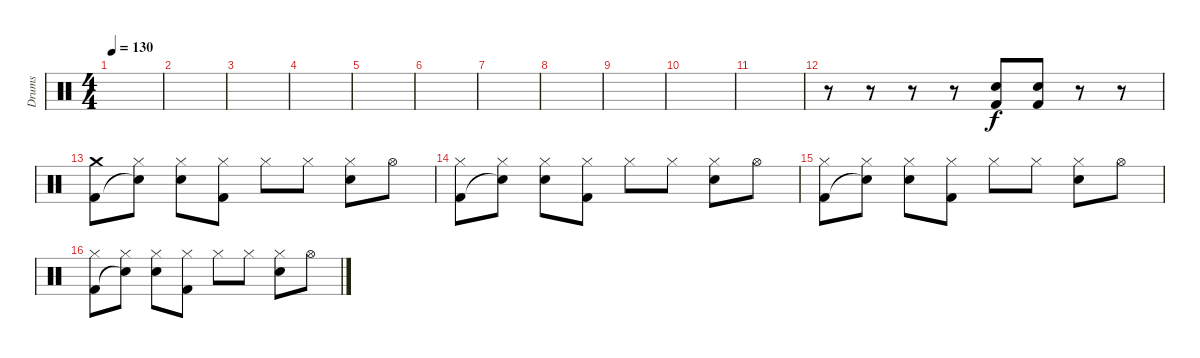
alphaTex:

\track ("Drums" "Drums") {instrument percussion}
\staff {score}
\articulation defaults
\ts (4 4)
\tempo 130
\clef neutral
\ks c
|
|
|
|
|
|
|
|
|
|
|
r.8 r.8 r.8 r.8 ("Electric Snare (hit)" "Kick (hit) 2").8 ("Electric Snare (hit)" "Kick (hit) 2").8 r.8 r.8 |
("Crash medium (hit)" "Kick (hit) 2").8 ("Hi-Hat (closed)" "Snare (hit)"{t}).8 ("Hi-Hat (closed)" "Electric Snare (hit)").8 ("Hi-Hat (closed)" "Kick (hit) 2").8 "Hi-Hat (closed)".8 "Hi-Hat (closed)".8 ("Hi-Hat (closed)" "Electric Snare (hit)").8 "Hi-Hat (open)".8 |
("Hi-Hat (closed)" "Kick (hit) 2").8 ("Hi-Hat (closed)" "Snare (hit)"{t}).8 ("Hi-Hat (closed)" "Electric Snare (hit)").8 ("Hi-Hat (closed)" "Kick (hit) 2").8 "Hi-Hat (closed)".8 "Hi-Hat (closed)".8 ("Hi-Hat (closed)" "Electric Snare (hit)").8 "Hi-Hat (open)".8 |
("Hi-Hat (closed)" "Kick (hit) 2").8 ("Hi-Hat (closed)" "Snare (hit)"{t}).8 ("Hi-Hat (closed)" "Electric Snare (hit)").8 ("Hi-Hat (closed)" "Kick (hit) 2").8 "Hi-Hat (closed)".8 "Hi-Hat (closed)".8 ("Hi-Hat (closed)" "Electric Snare (hit)").8 "Hi-Hat (open)".8 |
("Hi-Hat (closed)" "Kick (hit) 2").8 ("Hi-Hat (closed)" "Snare (hit)"{t}).8 ("Hi-Hat (closed)" "Electric Snare (hit)").8 ("Hi-Hat (closed)" "Kick (hit) 2").8 "Hi-Hat (closed)".8 "Hi-Hat (closed)".8 ("Hi-Hat (closed)" "Electric Snare (hit)").8 "Hi-Hat (open)".8
